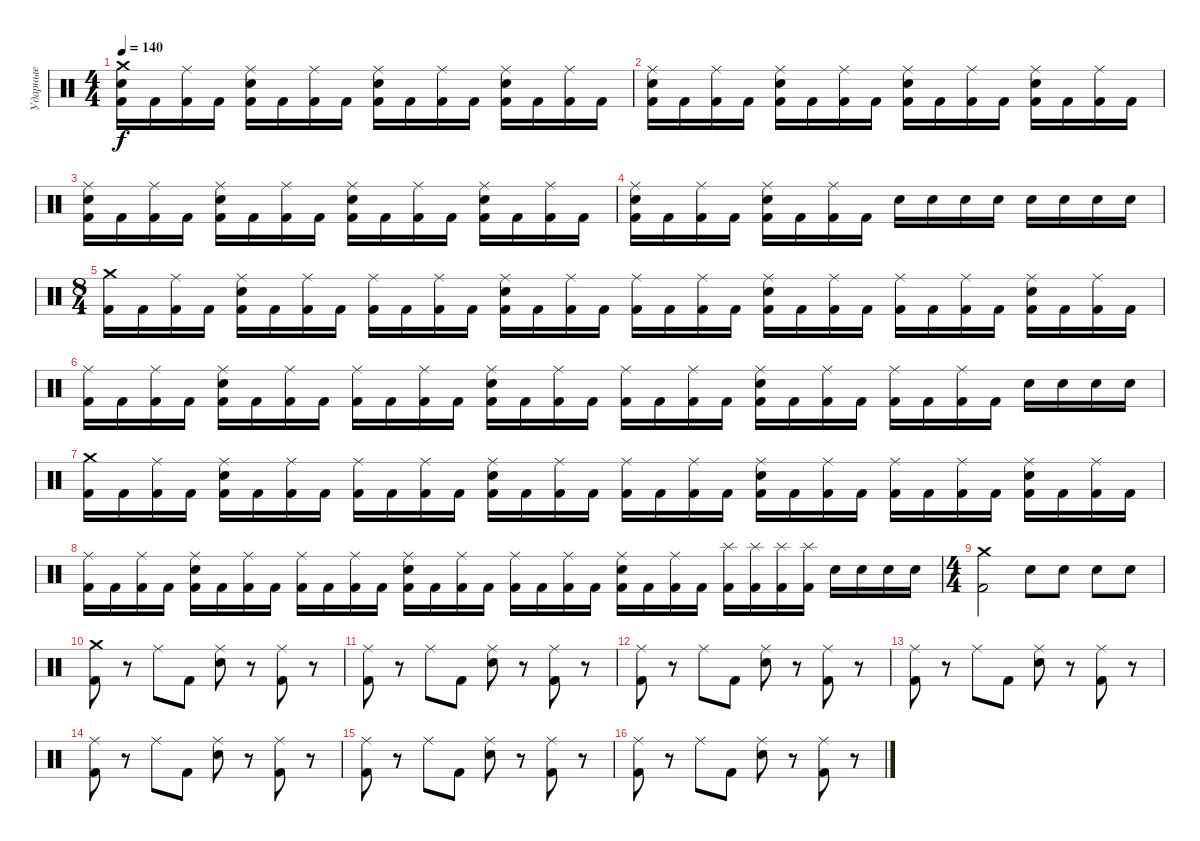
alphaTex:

\track ("Ударные" "Ударные") {instrument percussion}
\staff {score}
\articulation defaults
\ts (4 4)
\tempo 140
\clef neutral
\ks c
("Crash medium (hit)" "Snare (hit) 2" "Kick (hit) 2").16{dy f} "Kick (hit) 2".16 ("Ride (middle)" "Kick (hit) 2").16 "Kick (hit) 2".16 ("Ride (middle)" "Snare (hit) 2" "Kick (hit) 2").16 "Kick (hit) 2".16 ("Ride (middle)" "Kick (hit) 2").16 "Kick (hit) 2".16 ("Ride (middle)" "Snare (hit) 2" "Kick (hit) 2").16 "Kick (hit) 2".16 ("Ride (middle)" "Kick (hit) 2").16 "Kick (hit) 2".16 ("Ride (middle)" "Snare (hit) 2" "Kick (hit) 2").16 "Kick (hit) 2".16 ("Ride (middle)" "Kick (hit) 2").16 "Kick (hit) 2".16 |
("Ride (middle)" "Snare (hit) 2" "Kick (hit) 2").16 "Kick (hit) 2".16 ("Ride (middle)" "Kick (hit) 2").16 "Kick (hit) 2".16 ("Ride (middle)" "Snare (hit) 2" "Kick (hit) 2").16 "Kick (hit) 2".16 ("Ride (middle)" "Kick (hit) 2").16 "Kick (hit) 2".16 ("Ride (middle)" "Snare (hit) 2" "Kick (hit) 2").16 "Kick (hit) 2".16 ("Ride (middle)" "Kick (hit) 2").16 "Kick (hit) 2".16 ("Ride (middle)" "Snare (hit) 2" "Kick (hit) 2").16 "Kick (hit) 2".16 ("Ride (middle)" "Kick (hit) 2").16 "Kick (hit) 2".16 |
("Ride (middle)" "Snare (hit) 2" "Kick (hit) 2").16 "Kick (hit) 2".16 ("Ride (middle)" "Kick (hit) 2").16 "Kick (hit) 2".16 ("Ride (middle)" "Snare (hit) 2" "Kick (hit) 2").16 "Kick (hit) 2".16 ("Ride (middle)" "Kick (hit) 2").16 "Kick (hit) 2".16 ("Ride (middle)" "Snare (hit) 2" "Kick (hit) 2").16 "Kick (hit) 2".16 ("Ride (middle)" "Kick (hit) 2").16 "Kick (hit) 2".16 ("Ride (middle)" "Snare (hit) 2" "Kick (hit) 2").16 "Kick (hit) 2".16 ("Ride (middle)" "Kick (hit) 2").16 "Kick (hit) 2".16 |
("Ride (middle)" "Snare (hit) 2" "Kick (hit) 2").16 "Kick (hit) 2".16 ("Ride (middle)" "Kick (hit) 2").16 "Kick (hit) 2".16 ("Ride (middle)" "Snare (hit) 2" "Kick (hit) 2").16 "Kick (hit) 2".16 ("Ride (middle)" "Kick (hit) 2").16 "Kick (hit) 2".16 "Snare (hit) 2".16 "Snare (hit) 2".16 "Snare (hit) 2".16 "Snare (hit) 2".16 "Snare (hit) 2".16 "Snare (hit) 2".16 "Snare (hit) 2".16 "Snare (hit) 2".16 |
\ts (8 4)
("Crash medium (hit)" "Kick (hit) 2").16 "Kick (hit) 2".16 ("Ride (middle)" "Kick (hit) 2").16 "Kick (hit) 2".16 ("Ride (middle)" "Snare (hit) 2" "Kick (hit) 2").16 "Kick (hit) 2".16 ("Ride (middle)" "Kick (hit) 2").16 "Kick (hit) 2".16 ("Ride (middle)" "Kick (hit) 2").16 "Kick (hit) 2".16 ("Ride (middle)" "Kick (hit) 2").16 "Kick (hit) 2".16 ("Ride (middle)" "Snare (hit) 2" "Kick (hit) 2").16 "Kick (hit) 2".16 ("Ride (middle)" "Kick (hit) 2").16 "Kick (hit) 2".16 ("Ride (middle)" "Kick (hit) 2").16 "Kick (hit) 2".16 ("Ride (middle)" "Kick (hit) 2").16 "Kick (hit) 2".16 ("Ride (middle)" "Snare (hit) 2" "Kick (hit) 2").16 "Kick (hit) 2".16 ("Ride (middle)" "Kick (hit) 2").16 "Kick (hit) 2".16 ("Ride (middle)" "Kick (hit) 2").16 "Kick (hit) 2".16 ("Ride (middle)" "Kick (hit) 2").16 "Kick (hit) 2".16 ("Ride (middle)" "Snare (hit) 2" "Kick (hit) 2").16 "Kick (hit) 2".16 ("Ride (middle)" "Kick (hit) 2").16 "Kick (hit) 2".16 |
("Ride (middle)" "Kick (hit) 2").16 "Kick (hit) 2".16 ("Ride (middle)" "Kick (hit) 2").16 "Kick (hit) 2".16 ("Ride (middle)" "Snare (hit) 2" "Kick (hit) 2").16 "Kick (hit) 2".16 ("Ride (middle)" "Kick (hit) 2").16 "Kick (hit) 2".16 ("Ride (middle)" "Kick (hit) 2").16 "Kick (hit) 2".16 ("Ride (middle)" "Kick (hit) 2").16 "Kick (hit) 2".16 ("Ride (middle)" "Snare (hit) 2" "Kick (hit) 2").16 "Kick (hit) 2".16 ("Ride (middle)" "Kick (hit) 2").16 "Kick (hit) 2".16 ("Ride (middle)" "Kick (hit) 2").16 "Kick (hit) 2".16 ("Ride (middle)" "Kick (hit) 2").16 "Kick (hit) 2".16 ("Ride (middle)" "Snare (hit) 2" "Kick (hit) 2").16 "Kick (hit) 2".16 ("Ride (middle)" "Kick (hit) 2").16 "Kick (hit) 2".16 ("Ride (middle)" "Kick (hit) 2").16 "Kick (hit) 2".16 ("Ride (middle)" "Kick (hit) 2").16 "Kick (hit) 2".16 "Snare (hit) 2".16 "Snare (hit) 2".16 "Snare (hit) 2".16 "Snare (hit) 2".16 |
("Crash medium (hit)" "Kick (hit) 2").16 "Kick (hit) 2".16 ("Ride (middle)" "Kick (hit) 2").16 "Kick (hit) 2".16 ("Ride (middle)" "Snare (hit) 2" "Kick (hit) 2").16 "Kick (hit) 2".16 ("Ride (middle)" "Kick (hit) 2").16 "Kick (hit) 2".16 ("Ride (middle)" "Kick (hit) 2").16 "Kick (hit) 2".16 ("Ride (middle)" "Kick (hit) 2").16 "Kick (hit) 2".16 ("Ride (middle)" "Snare (hit) 2" "Kick (hit) 2").16 "Kick (hit) 2".16 ("Ride (middle)" "Kick (hit) 2").16 "Kick (hit) 2".16 ("Ride (middle)" "Kick (hit) 2").16 "Kick (hit) 2".16 ("Ride (middle)" "Kick (hit) 2").16 "Kick (hit) 2".16 ("Ride (middle)" "Snare (hit) 2" "Kick (hit) 2").16 "Kick (hit) 2".16 ("Ride (middle)" "Kick (hit) 2").16 "Kick (hit) 2".16 ("Ride (middle)" "Kick (hit) 2").16 "Kick (hit) 2".16 ("Ride (middle)" "Kick (hit) 2").16 "Kick (hit) 2".16 ("Ride (middle)" "Snare (hit) 2" "Kick (hit) 2").16 "Kick (hit) 2".16 ("Ride (middle)" "Kick (hit) 2").16 "Kick (hit) 2".16 |
("Ride (middle)" "Kick (hit) 2").16 "Kick (hit) 2".16 ("Ride (middle)" "Kick (hit) 2").16 "Kick (hit) 2".16 ("Ride (middle)" "Snare (hit) 2" "Kick (hit) 2").16 "Kick (hit) 2".16 ("Ride (middle)" "Kick (hit) 2").16 "Kick (hit) 2".16 ("Ride (middle)" "Kick (hit) 2").16 "Kick (hit) 2".16 ("Ride (middle)" "Kick (hit) 2").16 "Kick (hit) 2".16 ("Ride (middle)" "Snare (hit) 2" "Kick (hit) 2").16 "Kick (hit) 2".16 ("Ride (middle)" "Kick (hit) 2").16 "Kick (hit) 2".16 ("Ride (middle)" "Kick (hit) 2").16 "Kick (hit) 2".16 ("Ride (middle)" "Kick (hit) 2").16 "Kick (hit) 2".16 ("Ride (middle)" "Snare (hit) 2" "Kick (hit) 2").16 "Kick (hit) 2".16 ("Ride (middle)" "Kick (hit) 2").16 "Kick (hit) 2".16 ("Splash (hit)" "Kick (hit) 2").16 ("Splash (hit)" "Kick (hit) 2").16 ("Splash (hit)" "Kick (hit) 2").16 ("Splash (hit)" "Kick (hit) 2").16 "Snare (hit) 2".16 "Snare (hit) 2".16 "Snare (hit) 2".16 "Snare (hit) 2".16 |
\ts (4 4)
("Crash medium (hit)" "Kick (hit) 2").2 "Snare (hit) 2".8 "Snare (hit) 2".8 "Snare (hit) 2".8 "Snare (hit) 2".8 |
("Crash medium (hit)" "Kick (hit) 2").8 r.8 "Ride (middle)".8 "Kick (hit) 2".8 ("Ride (middle)" "Snare (hit) 2").8 r.8 ("Ride (middle)" "Kick (hit) 2").8 r.8 |
("Ride (middle)" "Kick (hit) 2").8 r.8 "Ride (middle)".8 "Kick (hit) 2".8 ("Ride (middle)" "Snare (hit) 2").8 r.8 ("Ride (middle)" "Kick (hit) 2").8 r.8 |
("Ride (middle)" "Kick (hit) 2").8 r.8 "Ride (middle)".8 "Kick (hit) 2".8 ("Ride (middle)" "Snare (hit) 2").8 r.8 ("Ride (middle)" "Kick (hit) 2").8 r.8 |
("Ride (middle)" "Kick (hit) 2").8 r.8 "Ride (middle)".8 "Kick (hit) 2".8 ("Ride (middle)" "Snare (hit) 2").8 r.8 ("Ride (middle)" "Kick (hit) 2").8 r.8 |
("Ride (middle)" "Kick (hit) 2").8 r.8 "Ride (middle)".8 "Kick (hit) 2".8 ("Ride (middle)" "Snare (hit) 2").8 r.8 ("Ride (middle)" "Kick (hit) 2").8 r.8 |
("Ride (middle)" "Kick (hit) 2").8 r.8 "Ride (middle)".8 "Kick (hit) 2".8 ("Ride (middle)" "Snare (hit) 2").8 r.8 ("Ride (middle)" "Kick (hit) 2").8 r.8 |
("Ride (middle)" "Kick (hit) 2").8 r.8 "Ride (middle)".8 "Kick (hit) 2".8 ("Ride (middle)" "Snare (hit) 2").8 r.8 ("Ride (middle)" "Kick (hit) 2").8 r.8
